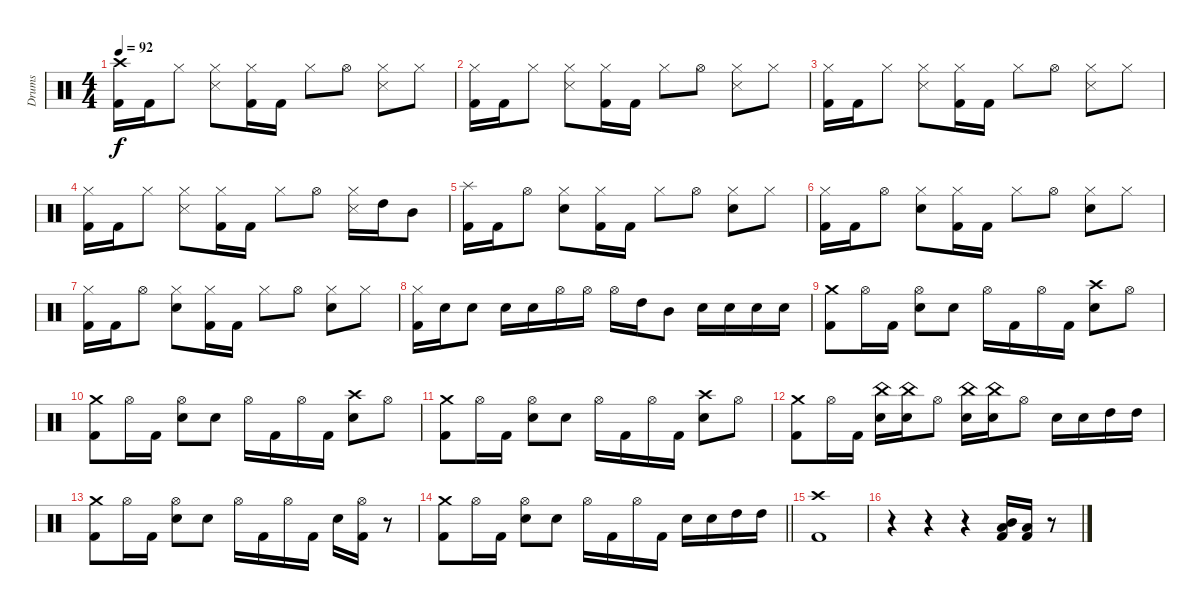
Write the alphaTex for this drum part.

\track ("Drums" "Drums") {instrument percussion}
\staff {score}
\articulation defaults
\ts (4 4)
\tempo 92
\clef neutral
\ks c
("Crash high (hit)" "Kick (hit) 2").16{dy f} "Kick (hit) 2".16 "Hi-Hat (closed)".8 ("Hi-Hat (closed)" "Snare (side stick) 3").8 ("Hi-Hat (closed)" "Kick (hit) 2").16 "Kick (hit) 2".16 "Hi-Hat (closed)".8 "Hi-Hat (open)".8 ("Hi-Hat (closed)" "Snare (side stick) 3").8 "Hi-Hat (closed)".8 |
("Hi-Hat (closed)" "Kick (hit) 2").16 "Kick (hit) 2".16 "Hi-Hat (closed)".8 ("Hi-Hat (closed)" "Snare (side stick) 3").8 ("Hi-Hat (closed)" "Kick (hit) 2").16 "Kick (hit) 2".16 "Hi-Hat (closed)".8 "Hi-Hat (open)".8 ("Hi-Hat (closed)" "Snare (side stick) 3").8 "Hi-Hat (closed)".8 |
("Hi-Hat (closed)" "Kick (hit) 2").16 "Kick (hit) 2".16 "Hi-Hat (closed)".8 ("Hi-Hat (closed)" "Snare (side stick) 3").8 ("Hi-Hat (closed)" "Kick (hit) 2").16 "Kick (hit) 2".16 "Hi-Hat (closed)".8 "Hi-Hat (open)".8 ("Hi-Hat (closed)" "Snare (side stick) 3").8 "Hi-Hat (closed)".8 |
("Hi-Hat (closed)" "Kick (hit) 2").16 "Kick (hit) 2".16 "Hi-Hat (closed)".8 ("Hi-Hat (closed)" "Snare (side stick) 3").8 ("Hi-Hat (closed)" "Kick (hit) 2").16 "Kick (hit) 2".16 "Hi-Hat (closed)".8 "Hi-Hat (open)".8 ("Hi-Hat (closed)" "Snare (side stick) 3").16 "High Tom (hit)".16 "Mid Tom (hit)".8 |
("Splash (hit)" "Kick (hit) 2").16 "Kick (hit) 2".16 "Hi-Hat (open)".8 ("Hi-Hat (closed)" "Electric Snare (hit)").8 ("Hi-Hat (closed)" "Kick (hit) 2").16 "Kick (hit) 2".16 "Hi-Hat (closed)".8 "Hi-Hat (open)".8 ("Hi-Hat (closed)" "Electric Snare (hit)").8 "Hi-Hat (closed)".8 |
("Hi-Hat (closed)" "Kick (hit) 2").16 "Kick (hit) 2".16 "Hi-Hat (open)".8 ("Hi-Hat (closed)" "Electric Snare (hit)").8 ("Hi-Hat (closed)" "Kick (hit) 2").16 "Kick (hit) 2".16 "Hi-Hat (closed)".8 "Hi-Hat (open)".8 ("Hi-Hat (closed)" "Electric Snare (hit)").8 "Hi-Hat (closed)".8 |
("Hi-Hat (closed)" "Kick (hit) 2").16 "Kick (hit) 2".16 "Hi-Hat (open)".8 ("Hi-Hat (closed)" "Electric Snare (hit)").8 ("Hi-Hat (closed)" "Kick (hit) 2").16 "Kick (hit) 2".16 "Hi-Hat (closed)".8 "Hi-Hat (open)".8 ("Hi-Hat (closed)" "Electric Snare (hit)").8 "Hi-Hat (closed)".8 |
("Hi-Hat (closed)" "Kick (hit) 2").16 "Electric Snare (hit)".16 "Electric Snare (hit)".8 "Electric Snare (hit)".16 "Electric Snare (hit)".16 "Hi-Hat (open)".16 "Hi-Hat (open)".16 "Hi-Hat (open)".16 "High Tom (hit)".16 "Mid Tom (hit)".8 "Snare (hit) 2".16 "Snare (hit) 2".16 "Snare (hit) 2".16 "Snare (hit) 2".16 |
("Crash medium (hit)" "Kick (hit) 2").8 "Hi-Hat (open)".16 "Kick (hit) 2".16 ("Hi-Hat (open)" "Snare (hit) 2").8 "Snare (hit) 2".8 "Hi-Hat (open)".16 "Kick (hit) 2".16 "Hi-Hat (open)".16 "Kick (hit) 2".16 ("Crash high (hit)" "Snare (hit) 2").8 "Hi-Hat (open)".8 |
("Crash medium (hit)" "Kick (hit) 2").8 "Hi-Hat (open)".16 "Kick (hit) 2".16 ("Hi-Hat (open)" "Snare (hit) 2").8 "Snare (hit) 2".8 "Hi-Hat (open)".16 "Kick (hit) 2".16 "Hi-Hat (open)".16 "Kick (hit) 2".16 ("Crash high (hit)" "Snare (hit) 2").8 "Hi-Hat (open)".8 |
("Crash medium (hit)" "Kick (hit) 2").8 "Hi-Hat (open)".16 "Kick (hit) 2".16 ("Hi-Hat (open)" "Snare (hit) 2").8 "Snare (hit) 2".8 "Hi-Hat (open)".16 "Kick (hit) 2".16 "Hi-Hat (open)".16 "Kick (hit) 2".16 ("Crash high (hit)" "Snare (hit) 2").8 "Hi-Hat (open)".8 |
("Crash medium (hit)" "Kick (hit) 2").8 "Hi-Hat (open)".16 "Kick (hit) 2".16 ("China (hit)" "Snare (hit) 2").16 ("China (hit)" "Snare (hit) 2").16 "Hi-Hat (open)".8 ("China (hit)" "Snare (hit) 2").16 ("China (hit)" "Snare (hit) 2").16 "Hi-Hat (open)".8 "Snare (hit) 2".16 "Snare (hit) 2".16 "High Tom (hit)".16 "High Tom (hit)".16 |
("Crash medium (hit)" "Kick (hit) 2").8 "Hi-Hat (open)".16 "Kick (hit) 2".16 ("Hi-Hat (open)" "Snare (hit) 2").8 "Snare (hit) 2".8 "Hi-Hat (open)".16 "Kick (hit) 2".16 "Hi-Hat (open)".16 "Kick (hit) 2".16 "Snare (hit) 2".16 ("Hi-Hat (open)" "Kick (hit) 2").16 r.8 |
\barLineRight lightlight
("Crash medium (hit)" "Kick (hit) 2").8 "Hi-Hat (open)".16 "Kick (hit) 2".16 ("Hi-Hat (open)" "Snare (hit) 2").8 "Snare (hit) 2".8 "Hi-Hat (open)".16 "Kick (hit) 2".16 "Hi-Hat (open)".16 "Kick (hit) 2".16 "Snare (hit) 2".16 "Snare (hit) 2".16 "High Tom (hit)".16 "High Tom (hit)".16 |
("Crash high (hit)" "Kick (hit) 2").1 |
r.4 r.4 r.4 ("Mid Tom (hit)" "Low Floor Tom (hit)" "Kick (hit) 2").16 ("Low Floor Tom (hit)" "Kick (hit) 2").16 r.8
